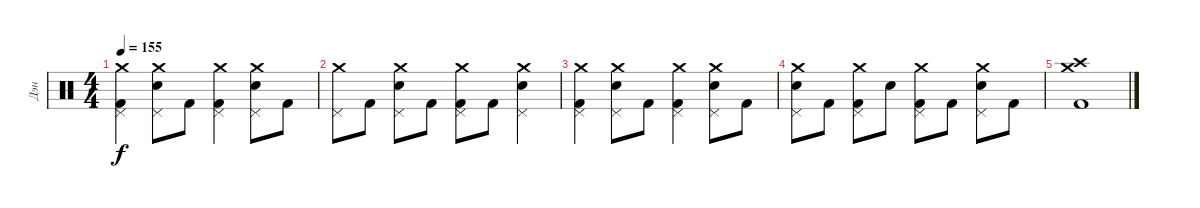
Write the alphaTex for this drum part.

\track ("Дэн" "Дэн") {instrument percussion}
\staff {score}
\articulation defaults
\ts (4 4)
\tempo 155
\clef neutral
\ks c
("Crash medium (hit)" "Pedal Hi-Hat (hit)" "Kick (hit) 2").4{dy f} ("Crash medium (hit)" "Pedal Hi-Hat (hit)" "Snare (hit) 2").8 "Kick (hit) 2".8 ("Crash medium (hit)" "Pedal Hi-Hat (hit)" "Kick (hit) 2").4 ("Crash medium (hit)" "Pedal Hi-Hat (hit)" "Snare (hit) 2").8 "Kick (hit) 2".8 |
("Crash medium (hit)" "Pedal Hi-Hat (hit)").8 "Kick (hit) 2".8 ("Crash medium (hit)" "Pedal Hi-Hat (hit)" "Snare (hit) 2").8 "Kick (hit) 2".8 ("Crash medium (hit)" "Pedal Hi-Hat (hit)" "Kick (hit) 2").8 "Kick (hit) 2".8 ("Crash medium (hit)" "Pedal Hi-Hat (hit)" "Snare (hit) 2").4 |
("Crash medium (hit)" "Pedal Hi-Hat (hit)" "Kick (hit) 2").4 ("Crash medium (hit)" "Pedal Hi-Hat (hit)" "Snare (hit) 2").8 "Kick (hit) 2".8 ("Crash medium (hit)" "Pedal Hi-Hat (hit)" "Kick (hit) 2").4 ("Crash medium (hit)" "Pedal Hi-Hat (hit)" "Snare (hit) 2").8 "Kick (hit) 2".8 |
("Crash medium (hit)" "Pedal Hi-Hat (hit)" "Snare (hit) 2").8 "Kick (hit) 2".8 ("Crash medium (hit)" "Pedal Hi-Hat (hit)" "Kick (hit) 2").8 "Snare (hit) 2".8 ("Crash medium (hit)" "Pedal Hi-Hat (hit)" "Kick (hit) 2").8 "Kick (hit) 2".8 ("Crash medium (hit)" "Pedal Hi-Hat (hit)" "Snare (hit) 2").8 "Kick (hit) 2".8 |
("Crash high (hit)" "Crash medium (hit)" "Kick (hit) 2").1
